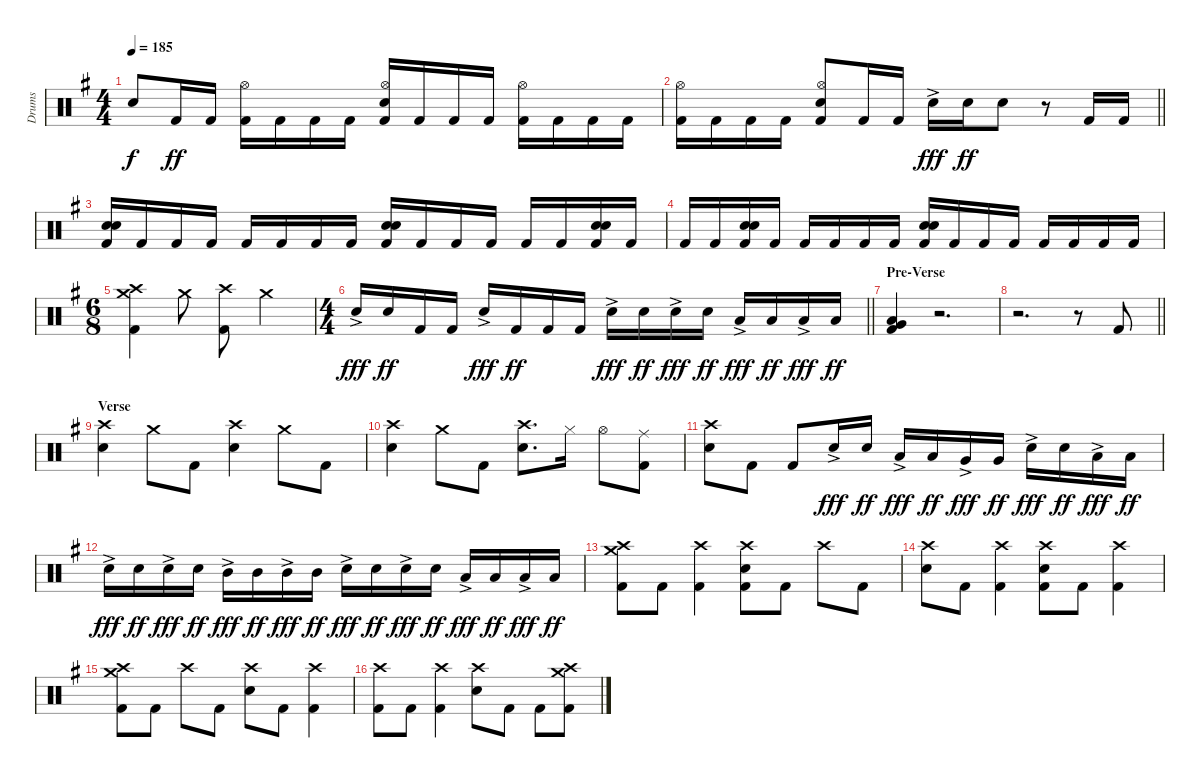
\track ("Drums" "Drums") {instrument percussion}
\staff {score}
\articulation defaults
\ts (4 4)
\tempo 185
\clef neutral
\ks g "Snare (hit)"{t}.8{dy f} "Kick (hit) 2".16{dy ff} "Kick (hit) 2".16
("Hi-Hat (open)" "Kick (hit) 2").16 "Kick (hit) 2".16 "Kick (hit) 2".16 "Kick (hit) 2".16 ("Hi-Hat (open)" "Electric Snare (hit)" "Kick (hit) 2").16 "Kick (hit) 2".16 "Kick (hit) 2".16 "Kick (hit) 2".16 ("Hi-Hat (open)" "Kick (hit) 2").16 "Kick (hit) 2".16 "Kick (hit) 2".16 "Kick (hit) 2".16 |
\barLineRight lightlight
("Hi-Hat (open)" "Kick (hit) 2").16 "Kick (hit) 2".16 "Kick (hit) 2".16 "Kick (hit) 2".16 ("Hi-Hat (open)" "Electric Snare (hit)" "Kick (hit) 2").8 "Kick (hit) 2".16 "Kick (hit) 2".16 "Electric Snare (hit)"{ac}.16{dy fff} "Electric Snare (hit)".16{dy ff} "Electric Snare (hit)".8 r.8 "Kick (hit) 2".16 "Kick (hit) 2".16 |
\section ("" "")
("Electric Snare (hit)" "Electric Snare (hit)" "Kick (hit) 2").16{bu 60} "Kick (hit) 2".16 "Kick (hit) 2".16 "Kick (hit) 2".16 "Kick (hit) 2".16 "Kick (hit) 2".16 "Kick (hit) 2".16 "Kick (hit) 2".16 ("Electric Snare (hit)" "Electric Snare (hit)" "Kick (hit) 2").16{bu 60} "Kick (hit) 2".16 "Kick (hit) 2".16 "Kick (hit) 2".16 "Kick (hit) 2".16 "Kick (hit) 2".16 ("Electric Snare (hit)" "Electric Snare (hit)" "Kick (hit) 2").16{bu 60} "Kick (hit) 2".16 |
"Kick (hit) 2".16 "Kick (hit) 2".16 ("Electric Snare (hit)" "Electric Snare (hit)" "Kick (hit) 2").16{bu 60} "Kick (hit) 2".16 "Kick (hit) 2".16 "Kick (hit) 2".16 "Kick (hit) 2".16 "Kick (hit) 2".16 ("Electric Snare (hit)" "Electric Snare (hit)" "Kick (hit) 2").16{bu 60} "Kick (hit) 2".16 "Kick (hit) 2".16 "Kick (hit) 2".16 "Kick (hit) 2".16 "Kick (hit) 2".16 "Kick (hit) 2".16 "Kick (hit) 2".16 |
\ts (6 8)
("Crash medium (hit)" "Crash high (hit)" "Kick (hit) 2").4 "Crash medium (hit)".8 ("Crash high (hit)" "Kick (hit) 2").8 "Crash medium (hit)".4 |
\ts (4 4)
\barLineRight lightlight "Electric Snare (hit)"{ac}.16{dy fff} "Electric Snare (hit)".16{dy ff} "Kick (hit) 2".16 "Kick (hit) 2".16 "Electric Snare (hit)"{ac}.16{dy fff} "Kick (hit) 2".16{dy ff} "Kick (hit) 2".16 "Kick (hit) 2".16 "Electric Snare (hit)"{ac}.16{dy fff} "Electric Snare (hit)".16{dy ff} "Electric Snare (hit)"{ac}.16{dy fff} "Electric Snare (hit)".16{dy ff} "Low Tom (hit)"{ac}.16{dy fff} "Low Tom (hit)".16{dy ff} "Low Tom (hit)"{ac}.16{dy fff} "Low Tom (hit)".16{dy ff}
|
\section ("" "Pre-Verse")
("Very Low Tom (hit)" "Low Floor Tom (hit)" "Kick (hit) 2").4 r.2{d} |
\barLineRight lightlight
r.2{d} r.8 "Kick (hit) 2".8 |
\section ("" "Verse")
("Crash high (hit)" "Electric Snare (hit)").4 "Crash medium (hit)".8 "Kick (hit) 2".8 ("Crash high (hit)" "Electric Snare (hit)").4 "Crash medium (hit)".8 "Kick (hit) 2".8 |
("Crash high (hit)" "Electric Snare (hit)").4 "Crash medium (hit)".8 "Kick (hit) 2".8 ("Crash high (hit)" "Electric Snare (hit)").8{d} "Hi-Hat (closed)".16 "Hi-Hat (open)".8 ("Ride (middle)" "Kick (hit) 2").8 |
("Crash high (hit)" "Electric Snare (hit)").8 "Kick (hit) 2".8 "Kick (hit) 2".8 "Electric Snare (hit)"{ac}.16{dy fff} "Electric Snare (hit)".16{dy ff} "Low Tom (hit)"{ac}.16{dy fff} "Low Tom (hit)".16{dy ff} "Very Low Tom (hit)"{ac}.16{dy fff} "Very Low Tom (hit)".16{dy ff} "Electric Snare (hit)"{ac}.16{dy fff} "Electric Snare (hit)".16{dy ff} "Low Tom (hit)"{ac}.16{dy fff} "Low Tom (hit)".16{dy ff} |
"Electric Snare (hit)"{ac}.16{dy fff} "Electric Snare (hit)".16{dy ff} "Electric Snare (hit)"{ac}.16{dy fff} "Electric Snare (hit)".16{dy ff} "Mid Tom (hit)"{ac}.16{dy fff} "Mid Tom (hit)".16{dy ff} "Mid Tom (hit)"{ac}.16{dy fff} "Mid Tom (hit)".16{dy ff} "Electric Snare (hit)"{ac}.16{dy fff} "Electric Snare (hit)".16{dy ff} "Electric Snare (hit)"{ac}.16{dy fff} "Electric Snare (hit)".16{dy ff} "Low Tom (hit)"{ac}.16{dy fff} "Low Tom (hit)".16{dy ff} "Low Tom (hit)"{ac}.16{dy fff} "Low Tom (hit)".16{dy ff} |
("Crash medium (hit)" "Crash high (hit)" "Kick (hit) 2").8 "Kick (hit) 2".8 ("Crash high (hit)" "Kick (hit) 2").4 ("Crash high (hit)" "Electric Snare (hit)" "Kick (hit) 2").8 "Kick (hit) 2".8 "Crash high (hit)".8 "Kick (hit) 2".8 |
("Crash high (hit)" "Electric Snare (hit)").8 "Kick (hit) 2".8 ("Crash high (hit)" "Kick (hit) 2").4 ("Crash high (hit)" "Electric Snare (hit)" "Kick (hit) 2").8 "Kick (hit) 2".8 ("Crash high (hit)" "Kick (hit) 2").4 |
("Crash medium (hit)" "Crash high (hit)" "Kick (hit) 2").8 "Kick (hit) 2".8 "Crash high (hit)".8 "Kick (hit) 2".8 ("Crash high (hit)" "Electric Snare (hit)").8 "Kick (hit) 2".8 ("Crash high (hit)" "Kick (hit) 2").4 |
("Crash high (hit)" "Kick (hit) 2").8 "Kick (hit) 2".8 ("Crash high (hit)" "Kick (hit) 2").4 ("Crash high (hit)" "Electric Snare (hit)").8 "Kick (hit) 2".8 "Kick (hit) 2".8 ("Crash medium (hit)" "Crash high (hit)" "Kick (hit) 2").8
